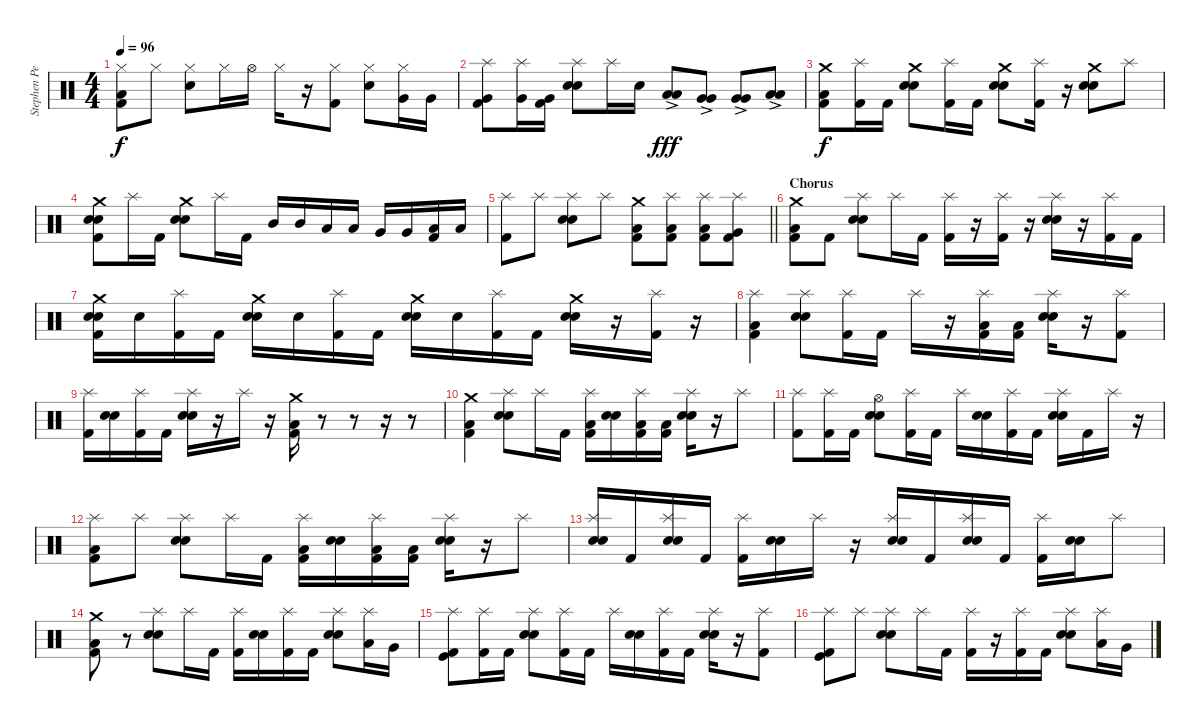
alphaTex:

\track ("Stephen Perkins Drums" "Stephen Pe") {instrument percussion}
\staff {score}
\articulation defaults
\ts (4 4)
\tempo 96
\clef neutral
\ks c
("Hi-Hat (closed)" "Low Floor Tom (hit)" "Kick (hit) 2").8{dy f} "Hi-Hat (closed)".8 ("Hi-Hat (closed)" "Electric Snare (hit)").8 "Hi-Hat (closed)".16 "Hi-Hat (open)".16 "Hi-Hat (closed)".16 r.16 ("Hi-Hat (closed)" "Kick (hit) 2").8 ("Hi-Hat (closed)" "Electric Snare (hit)").8 ("Hi-Hat (closed)" "Very Low Tom (hit)").16 "Very Low Tom (hit)".16 |
("Splash (hit)" "Very Low Tom (hit)" "Kick (hit) 2").8 ("Splash (hit)" "Very Low Tom (hit)").16 ("Very Low Tom (hit)" "Kick (hit) 2").16 ("Splash (hit)" "Snare (hit) 2" "Electric Snare (hit)").8 "Splash (hit)".16 "Electric Snare (hit)".16 ("Low Tom (hit)"{ac} "Low Tom (hit)"{ac}).8{dy fff} ("Very Low Tom (hit)"{ac} "Very Low Tom (hit)"{ac}).8 ("Very Low Tom (hit)"{ac} "Very Low Tom (hit)"{ac}).8 ("Low Floor Tom (hit)"{ac} "Low Floor Tom (hit)"{ac}).8 |
("Crash medium (hit)" "Low Floor Tom (hit)" "Kick (hit) 2").8{dy f} ("Splash (hit)" "Kick (hit) 2").16 "Kick (hit) 2".16 ("Crash medium (hit)" "Snare (hit) 2" "Electric Snare (hit)").8 ("Splash (hit)" "Kick (hit) 2").16 "Kick (hit) 2".16 ("Crash medium (hit)" "Snare (hit) 2" "Electric Snare (hit)").8 ("Splash (hit)" "Kick (hit) 2").16 r.16 ("Crash medium (hit)" "Snare (hit) 2" "Electric Snare (hit)").8 "Splash (hit)".8 |
("Crash medium (hit)" "Snare (hit) 2" "Electric Snare (hit)" "Kick (hit) 2").8 "Splash (hit)".16 "Kick (hit) 2".16 ("Crash medium (hit)" "Snare (hit) 2" "Electric Snare (hit)").8 "Splash (hit)".16 "Kick (hit) 2".16 "Mid Tom (hit)".16 "Mid Tom (hit)".16 "Low Tom (hit)".16 "Low Tom (hit)".16 "Very Low Tom (hit)".16 "Very Low Tom (hit)".16 ("Low Floor Tom (hit)" "Kick (hit) 2").16 "Low Floor Tom (hit)".16 |
\barLineRight lightlight
("Splash (hit)" "Kick (hit) 2").8 "Splash (hit)".8 ("Splash (hit)" "Snare (hit) 2" "Electric Snare (hit)").8 "Splash (hit)".8 ("Crash medium (hit)" "Low Floor Tom (hit)" "Kick (hit) 2").8 ("Splash (hit)" "Low Floor Tom (hit)" "Kick (hit) 2").8 ("Splash (hit)" "Low Floor Tom (hit)" "Kick (hit) 2").8 ("Splash (hit)" "Very Low Tom (hit)" "Kick (hit) 2").8 |
\section ("" "Chorus")
("Crash medium (hit)" "Low Floor Tom (hit)" "Kick (hit) 2").8 "Kick (hit) 2".8 ("Splash (hit)" "Electric Snare (hit)" "Snare (hit) 2").8 "Splash (hit)".16 "Kick (hit) 2".16 ("Splash (hit)" "Kick (hit) 2").16 r.16 ("Splash (hit)" "Kick (hit) 2").16 r.16 ("Splash (hit)" "Snare (hit) 2" "Electric Snare (hit)").16 r.16 ("Splash (hit)" "Kick (hit) 2").16 "Kick (hit) 2".16 |
("Crash medium (hit)" "Electric Snare (hit)" "Snare (hit) 2" "Kick (hit) 2").16 "Electric Snare (hit)".16 ("Splash (hit)" "Kick (hit) 2").16 "Kick (hit) 2".16 ("Crash medium (hit)" "Electric Snare (hit)" "Snare (hit) 2").16 "Electric Snare (hit)".16 ("Splash (hit)" "Kick (hit) 2").16 "Kick (hit) 2".16 ("Crash medium (hit)" "Electric Snare (hit)" "Snare (hit) 2").16 "Electric Snare (hit)".16 ("Splash (hit)" "Kick (hit) 2").16 "Kick (hit) 2".16 ("Crash medium (hit)" "Snare (hit) 2" "Electric Snare (hit)").16 r.16 ("Splash (hit)" "Kick (hit) 2").16 r.16 |
("Splash (hit)" "Low Floor Tom (hit)" "Kick (hit) 2").4 ("Splash (hit)" "Electric Snare (hit)" "Snare (hit) 2").8 ("Splash (hit)" "Kick (hit) 2").16 "Kick (hit) 2".16 "Splash (hit)".16 r.16 ("Splash (hit)" "Low Floor Tom (hit)" "Kick (hit) 2").16 ("Low Floor Tom (hit)" "Kick (hit) 2").16 ("Splash (hit)" "Snare (hit) 2" "Electric Snare (hit)").16 r.16 ("Splash (hit)" "Kick (hit) 2").8 |
("Splash (hit)" "Kick (hit) 2").16 ("Electric Snare (hit)" "Snare (hit) 2").16 ("Splash (hit)" "Kick (hit) 2").16 "Kick (hit) 2".16 ("Splash (hit)" "Electric Snare (hit)" "Snare (hit) 2").16 r.16 "Splash (hit)".16 r.16 ("Crash medium (hit)" "Low Floor Tom (hit)" "Kick (hit) 2").16 r.8 r.8 r.16 r.8 |
("Crash medium (hit)" "Low Floor Tom (hit)" "Kick (hit) 2").4 ("Splash (hit)" "Electric Snare (hit)" "Snare (hit) 2").8 "Splash (hit)".16 "Kick (hit) 2".16 ("Splash (hit)" "Low Floor Tom (hit)" "Kick (hit) 2").16 ("Snare (hit) 2" "Electric Snare (hit)").16 ("Splash (hit)" "Low Floor Tom (hit)" "Kick (hit) 2").16 ("Low Floor Tom (hit)" "Kick (hit) 2").16 ("Splash (hit)" "Snare (hit) 2" "Electric Snare (hit)").16 r.16 "Splash (hit)".8 |
("Splash (hit)" "Kick (hit) 2").8 ("Splash (hit)" "Kick (hit) 2").16 "Kick (hit) 2".16 ("Hi-Hat (open)" "Electric Snare (hit)" "Snare (hit) 2").8 ("Splash (hit)" "Kick (hit) 2").16 "Kick (hit) 2".16 "Splash (hit)".16 ("Snare (hit) 2" "Electric Snare (hit)").16 ("Splash (hit)" "Kick (hit) 2").16 "Kick (hit) 2".16 ("Splash (hit)" "Snare (hit) 2" "Electric Snare (hit)").16 "Kick (hit) 2".16 "Splash (hit)".16 r.16 |
("Splash (hit)" "Low Floor Tom (hit)" "Kick (hit) 2").8 "Splash (hit)".8 ("Splash (hit)" "Electric Snare (hit)" "Snare (hit) 2").8 "Splash (hit)".16 "Kick (hit) 2".16 ("Splash (hit)" "Low Floor Tom (hit)" "Kick (hit) 2").16 ("Snare (hit) 2" "Electric Snare (hit)").16 ("Splash (hit)" "Low Floor Tom (hit)" "Kick (hit) 2").16 ("Low Floor Tom (hit)" "Kick (hit) 2").16 ("Splash (hit)" "Snare (hit) 2" "Electric Snare (hit)").16 r.16 "Splash (hit)".8 |
("Splash (hit)" "Electric Snare (hit)" "Snare (hit) 2").16 "Kick (hit) 2".16 ("Splash (hit)" "Electric Snare (hit)" "Snare (hit) 2").16 "Kick (hit) 2".16 ("Splash (hit)" "Kick (hit) 2").16 ("Snare (hit) 2" "Electric Snare (hit)").16 "Splash (hit)".16 r.16 ("Splash (hit)" "Snare (hit) 2" "Electric Snare (hit)").16 "Kick (hit) 2".16 ("Splash (hit)" "Snare (hit) 2" "Electric Snare (hit)").16 "Kick (hit) 2".16 ("Splash (hit)" "Kick (hit) 2").16 ("Snare (hit) 2" "Electric Snare (hit)").16 "Splash (hit)".8 |
("Crash medium (hit)" "Low Floor Tom (hit)" "Kick (hit) 2").8 r.8 ("Splash (hit)" "Electric Snare (hit)" "Snare (hit) 2").8 "Splash (hit)".16 "Kick (hit) 2".16 ("Splash (hit)" "Kick (hit) 2").16 ("Snare (hit) 2" "Electric Snare (hit)").16 ("Splash (hit)" "Kick (hit) 2").16 "Kick (hit) 2".16 ("Splash (hit)" "Snare (hit) 2" "Electric Snare (hit)").8 ("Splash (hit)" "Low Tom (hit)").16 "Very Low Tom (hit)".16 |
("Splash (hit)" "Kick (hit)" "Kick (hit) 2").8 ("Splash (hit)" "Kick (hit) 2").16 "Kick (hit) 2".16 ("Splash (hit)" "Electric Snare (hit)" "Snare (hit) 2").8 ("Splash (hit)" "Kick (hit) 2").16 "Kick (hit) 2".16 "Splash (hit)".16 ("Snare (hit) 2" "Electric Snare (hit)").16 ("Splash (hit)" "Kick (hit) 2").16 "Kick (hit) 2".16 ("Splash (hit)" "Snare (hit) 2" "Electric Snare (hit)").16 r.16 ("Splash (hit)" "Kick (hit) 2").8 |
("Splash (hit)" "Kick (hit)" "Kick (hit) 2").8 "Splash (hit)".8 ("Splash (hit)" "Electric Snare (hit)" "Snare (hit) 2").8 "Splash (hit)".16 "Kick (hit) 2".16 ("Splash (hit)" "Kick (hit) 2").16 r.16 ("Splash (hit)" "Kick (hit) 2").16 "Kick (hit) 2".16 ("Splash (hit)" "Electric Snare (hit)" "Snare (hit) 2").8 ("Splash (hit)" "Low Tom (hit)").16 "Very Low Tom (hit)".16
